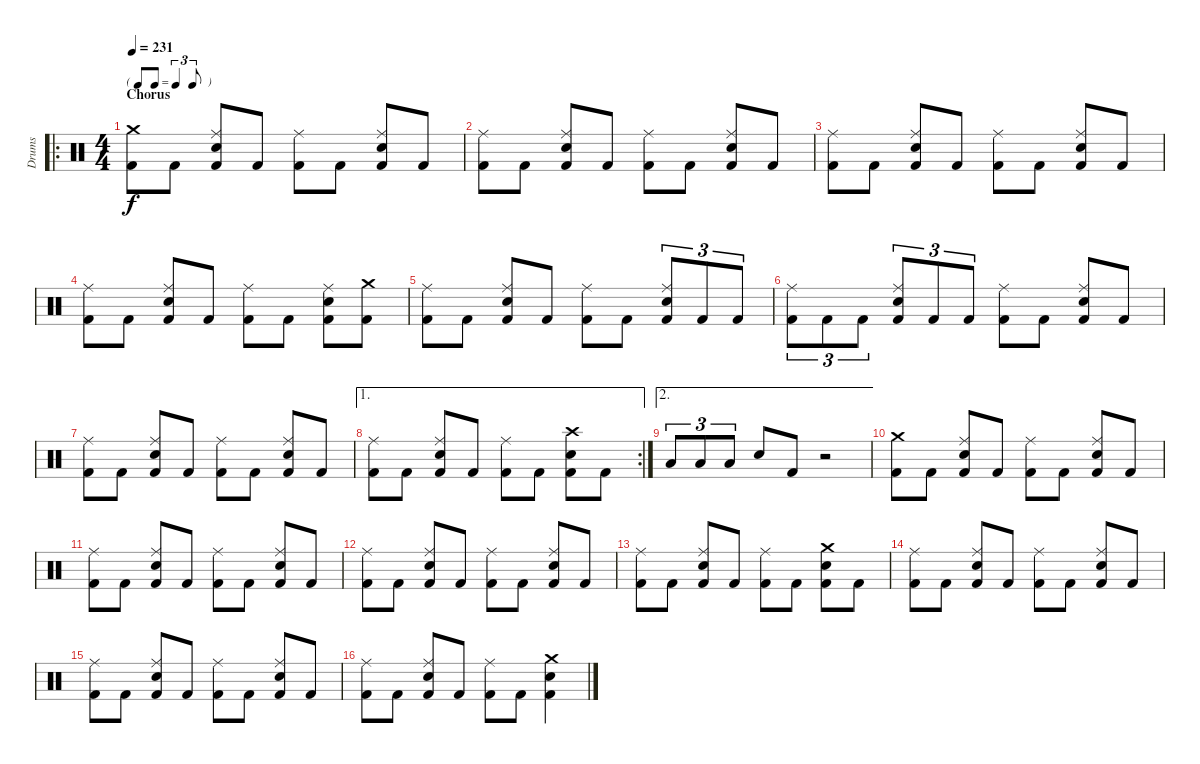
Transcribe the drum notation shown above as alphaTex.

\track ("Drums" "Drums") {instrument percussion}
\staff {score}
\articulation defaults
\ro
\ts (4 4)
\tf triplet8th
\section ("" "Chorus")
\tempo 231
\clef neutral
\ks c
("Crash medium (hit)" "Kick (hit) 2").8{dy f} "Kick (hit) 2".8 ("Ride (middle)" "Electric Snare (hit)" "Kick (hit) 2").8 "Kick (hit) 2".8 ("Ride (middle)" "Kick (hit) 2").8 "Kick (hit) 2".8 ("Ride (middle)" "Electric Snare (hit)" "Kick (hit) 2").8 "Kick (hit) 2".8 |
("Ride (middle)" "Kick (hit) 2").8 "Kick (hit) 2".8 ("Ride (middle)" "Electric Snare (hit)" "Kick (hit) 2").8 "Kick (hit) 2".8 ("Ride (middle)" "Kick (hit) 2").8 "Kick (hit) 2".8 ("Ride (middle)" "Electric Snare (hit)" "Kick (hit) 2").8 "Kick (hit) 2".8 |
("Ride (middle)" "Kick (hit) 2").8 "Kick (hit) 2".8 ("Ride (middle)" "Electric Snare (hit)" "Kick (hit) 2").8 "Kick (hit) 2".8 ("Ride (middle)" "Kick (hit) 2").8 "Kick (hit) 2".8 ("Ride (middle)" "Electric Snare (hit)" "Kick (hit) 2").8 "Kick (hit) 2".8 |
("Ride (middle)" "Kick (hit) 2").8 "Kick (hit) 2".8 ("Ride (middle)" "Electric Snare (hit)" "Kick (hit) 2").8 "Kick (hit) 2".8 ("Ride (middle)" "Kick (hit) 2").8 "Kick (hit) 2".8 ("Ride (middle)" "Electric Snare (hit)" "Kick (hit) 2").8 ("Crash medium (hit)" "Kick (hit) 2").8 |
("Ride (middle)" "Kick (hit) 2").8 "Kick (hit) 2".8 ("Ride (middle)" "Electric Snare (hit)" "Kick (hit) 2").8 "Kick (hit) 2".8 ("Ride (middle)" "Kick (hit) 2").8 "Kick (hit) 2".8 ("Ride (middle)" "Electric Snare (hit)" "Kick (hit) 2").8{tu (3 2)} "Kick (hit) 2".8{tu (3 2)} "Kick (hit) 2".8{tu (3 2)} |
("Ride (middle)" "Kick (hit) 2").8{tu (3 2)} "Kick (hit) 2".8{tu (3 2)} "Kick (hit) 2".8{tu (3 2)} ("Ride (middle)" "Electric Snare (hit)" "Kick (hit) 2").8{tu (3 2)} "Kick (hit) 2".8{tu (3 2)} "Kick (hit) 2".8{tu (3 2)} ("Ride (middle)" "Kick (hit) 2").8 "Kick (hit) 2".8 ("Ride (middle)" "Electric Snare (hit)" "Kick (hit) 2").8 "Kick (hit) 2".8 |
("Ride (middle)" "Kick (hit) 2").8 "Kick (hit) 2".8 ("Ride (middle)" "Electric Snare (hit)" "Kick (hit) 2").8 "Kick (hit) 2".8 ("Ride (middle)" "Kick (hit) 2").8 "Kick (hit) 2".8 ("Ride (middle)" "Electric Snare (hit)" "Kick (hit) 2").8 "Kick (hit) 2".8 |
\ae 1
\rc 2
("Ride (middle)" "Kick (hit) 2").8 "Kick (hit) 2".8 ("Ride (middle)" "Electric Snare (hit)" "Kick (hit) 2").8 "Kick (hit) 2".8 ("Ride (middle)" "Kick (hit) 2").8 "Kick (hit) 2".8 ("Crash high (hit)" "Electric Snare (hit)" "Kick (hit) 2").8 "Kick (hit) 2".8 |
\ae 2 "Low Tom (hit)".8{tu (3 2)} "Low Tom (hit)".8{tu (3 2)} "Low Tom (hit)".8{tu (3 2)} "Electric Snare (hit)".8 "Kick (hit) 2".8
r.2 |
("Crash medium (hit)" "Kick (hit) 2").8 "Kick (hit) 2".8 ("Ride (middle)" "Electric Snare (hit)" "Kick (hit) 2").8 "Kick (hit) 2".8 ("Ride (middle)" "Kick (hit) 2").8 "Kick (hit) 2".8 ("Ride (middle)" "Electric Snare (hit)" "Kick (hit) 2").8 "Kick (hit) 2".8 |
("Ride (middle)" "Kick (hit) 2").8 "Kick (hit) 2".8 ("Ride (middle)" "Electric Snare (hit)" "Kick (hit) 2").8 "Kick (hit) 2".8 ("Ride (middle)" "Kick (hit) 2").8 "Kick (hit) 2".8 ("Ride (middle)" "Electric Snare (hit)" "Kick (hit) 2").8 "Kick (hit) 2".8 |
("Ride (middle)" "Kick (hit) 2").8 "Kick (hit) 2".8 ("Ride (middle)" "Electric Snare (hit)" "Kick (hit) 2").8 "Kick (hit) 2".8 ("Ride (middle)" "Kick (hit) 2").8 "Kick (hit) 2".8 ("Ride (middle)" "Electric Snare (hit)" "Kick (hit) 2").8 "Kick (hit) 2".8 |
("Ride (middle)" "Kick (hit) 2").8 "Kick (hit) 2".8 ("Ride (middle)" "Electric Snare (hit)" "Kick (hit) 2").8 "Kick (hit) 2".8 ("Ride (middle)" "Kick (hit) 2").8 "Kick (hit) 2".8 ("Crash medium (hit)" "Electric Snare (hit)" "Kick (hit) 2").8 "Kick (hit) 2".8 |
("Ride (middle)" "Kick (hit) 2").8 "Kick (hit) 2".8 ("Ride (middle)" "Electric Snare (hit)" "Kick (hit) 2").8 "Kick (hit) 2".8 ("Ride (middle)" "Kick (hit) 2").8 "Kick (hit) 2".8 ("Ride (middle)" "Electric Snare (hit)" "Kick (hit) 2").8 "Kick (hit) 2".8 |
("Ride (middle)" "Kick (hit) 2").8 "Kick (hit) 2".8 ("Ride (middle)" "Electric Snare (hit)" "Kick (hit) 2").8 "Kick (hit) 2".8 ("Ride (middle)" "Kick (hit) 2").8 "Kick (hit) 2".8 ("Ride (middle)" "Electric Snare (hit)" "Kick (hit) 2").8 "Kick (hit) 2".8 |
("Ride (middle)" "Kick (hit) 2").8 "Kick (hit) 2".8 ("Ride (middle)" "Electric Snare (hit)" "Kick (hit) 2").8 "Kick (hit) 2".8 ("Ride (middle)" "Kick (hit) 2").8 "Kick (hit) 2".8 ("Crash medium (hit)" "Electric Snare (hit)" "Kick (hit) 2").4
